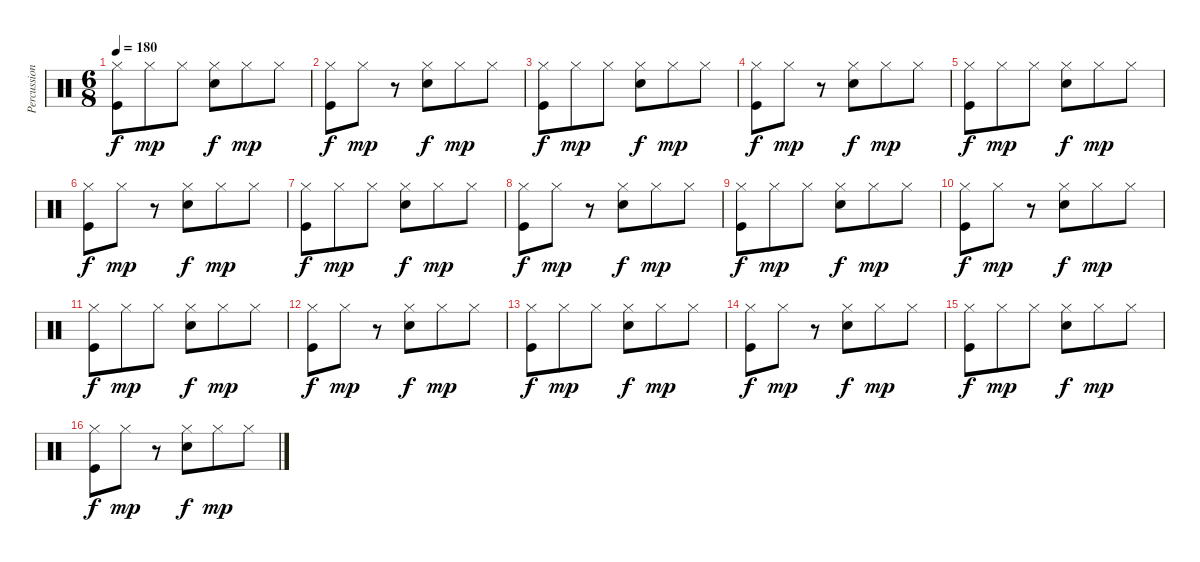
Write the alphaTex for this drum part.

\track ("Percussions" "Percussion") {instrument percussion}
\staff {score}
\articulation defaults
\ts (6 8)
\tempo 180
\clef neutral
\ks c
("Hi-Hat (closed)" "Kick (hit)").8{dy f} "Hi-Hat (closed)".8{dy mp} "Hi-Hat (closed)".8 ("Hi-Hat (closed)" "Snare (hit) 2").8{dy f} "Hi-Hat (closed)".8{dy mp} "Hi-Hat (closed)".8 |
("Hi-Hat (closed)" "Kick (hit)").8{dy f} "Hi-Hat (closed)".8{dy mp} r.8 ("Hi-Hat (closed)" "Snare (hit) 2").8{dy f} "Hi-Hat (closed)".8{dy mp} "Hi-Hat (closed)".8 |
("Hi-Hat (closed)" "Kick (hit)").8{dy f} "Hi-Hat (closed)".8{dy mp} "Hi-Hat (closed)".8 ("Hi-Hat (closed)" "Snare (hit) 2").8{dy f} "Hi-Hat (closed)".8{dy mp} "Hi-Hat (closed)".8 |
("Hi-Hat (closed)" "Kick (hit)").8{dy f} "Hi-Hat (closed)".8{dy mp} r.8 ("Hi-Hat (closed)" "Snare (hit) 2").8{dy f} "Hi-Hat (closed)".8{dy mp} "Hi-Hat (closed)".8 |
("Hi-Hat (closed)" "Kick (hit)").8{dy f} "Hi-Hat (closed)".8{dy mp} "Hi-Hat (closed)".8 ("Hi-Hat (closed)" "Snare (hit) 2").8{dy f} "Hi-Hat (closed)".8{dy mp} "Hi-Hat (closed)".8 |
("Hi-Hat (closed)" "Kick (hit)").8{dy f} "Hi-Hat (closed)".8{dy mp} r.8 ("Hi-Hat (closed)" "Snare (hit) 2").8{dy f} "Hi-Hat (closed)".8{dy mp} "Hi-Hat (closed)".8 |
("Hi-Hat (closed)" "Kick (hit)").8{dy f} "Hi-Hat (closed)".8{dy mp} "Hi-Hat (closed)".8 ("Hi-Hat (closed)" "Snare (hit) 2").8{dy f} "Hi-Hat (closed)".8{dy mp} "Hi-Hat (closed)".8 |
("Hi-Hat (closed)" "Kick (hit)").8{dy f} "Hi-Hat (closed)".8{dy mp} r.8 ("Hi-Hat (closed)" "Snare (hit) 2").8{dy f} "Hi-Hat (closed)".8{dy mp} "Hi-Hat (closed)".8 |
("Hi-Hat (closed)" "Kick (hit)").8{dy f} "Hi-Hat (closed)".8{dy mp} "Hi-Hat (closed)".8 ("Hi-Hat (closed)" "Snare (hit) 2").8{dy f} "Hi-Hat (closed)".8{dy mp} "Hi-Hat (closed)".8 |
("Hi-Hat (closed)" "Kick (hit)").8{dy f} "Hi-Hat (closed)".8{dy mp} r.8 ("Hi-Hat (closed)" "Snare (hit) 2").8{dy f} "Hi-Hat (closed)".8{dy mp} "Hi-Hat (closed)".8 |
("Hi-Hat (closed)" "Kick (hit)").8{dy f} "Hi-Hat (closed)".8{dy mp} "Hi-Hat (closed)".8 ("Hi-Hat (closed)" "Snare (hit) 2").8{dy f} "Hi-Hat (closed)".8{dy mp} "Hi-Hat (closed)".8 |
("Hi-Hat (closed)" "Kick (hit)").8{dy f} "Hi-Hat (closed)".8{dy mp} r.8 ("Hi-Hat (closed)" "Snare (hit) 2").8{dy f} "Hi-Hat (closed)".8{dy mp} "Hi-Hat (closed)".8 |
("Hi-Hat (closed)" "Kick (hit)").8{dy f} "Hi-Hat (closed)".8{dy mp} "Hi-Hat (closed)".8 ("Hi-Hat (closed)" "Snare (hit) 2").8{dy f} "Hi-Hat (closed)".8{dy mp} "Hi-Hat (closed)".8 |
("Hi-Hat (closed)" "Kick (hit)").8{dy f} "Hi-Hat (closed)".8{dy mp} r.8 ("Hi-Hat (closed)" "Snare (hit) 2").8{dy f} "Hi-Hat (closed)".8{dy mp} "Hi-Hat (closed)".8 |
("Hi-Hat (closed)" "Kick (hit)").8{dy f} "Hi-Hat (closed)".8{dy mp} "Hi-Hat (closed)".8 ("Hi-Hat (closed)" "Snare (hit) 2").8{dy f} "Hi-Hat (closed)".8{dy mp} "Hi-Hat (closed)".8 |
("Hi-Hat (closed)" "Kick (hit)").8{dy f} "Hi-Hat (closed)".8{dy mp} r.8 ("Hi-Hat (closed)" "Snare (hit) 2").8{dy f} "Hi-Hat (closed)".8{dy mp} "Hi-Hat (closed)".8
